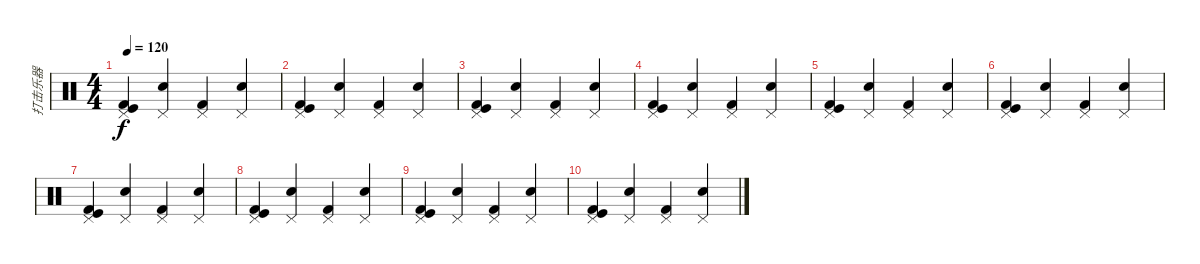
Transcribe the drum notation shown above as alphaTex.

\track ("打击乐器" "打击乐器") {instrument percussion}
\staff {score}
\articulation defaults
\ts (4 4)
\tempo 120
\clef neutral
\ks c
("Kick (hit) 2" "Kick (hit)" "Pedal Hi-Hat (hit)").4{dy f} ("Pedal Hi-Hat (hit)" "Electric Snare (hit)").4 ("Kick (hit) 2" "Pedal Hi-Hat (hit)").4 ("Pedal Hi-Hat (hit)" "Electric Snare (hit)").4 |
("Kick (hit) 2" "Kick (hit)" "Pedal Hi-Hat (hit)").4 ("Pedal Hi-Hat (hit)" "Electric Snare (hit)").4 ("Kick (hit) 2" "Pedal Hi-Hat (hit)").4 ("Pedal Hi-Hat (hit)" "Electric Snare (hit)").4 |
("Kick (hit) 2" "Kick (hit)" "Pedal Hi-Hat (hit)").4 ("Pedal Hi-Hat (hit)" "Electric Snare (hit)").4 ("Kick (hit) 2" "Pedal Hi-Hat (hit)").4 ("Pedal Hi-Hat (hit)" "Electric Snare (hit)").4 |
("Kick (hit) 2" "Kick (hit)" "Pedal Hi-Hat (hit)").4 ("Pedal Hi-Hat (hit)" "Electric Snare (hit)").4 ("Kick (hit) 2" "Pedal Hi-Hat (hit)").4 ("Pedal Hi-Hat (hit)" "Electric Snare (hit)").4 |
("Kick (hit) 2" "Kick (hit)" "Pedal Hi-Hat (hit)").4 ("Pedal Hi-Hat (hit)" "Electric Snare (hit)").4 ("Kick (hit) 2" "Pedal Hi-Hat (hit)").4 ("Pedal Hi-Hat (hit)" "Electric Snare (hit)").4 |
("Kick (hit) 2" "Kick (hit)" "Pedal Hi-Hat (hit)").4 ("Pedal Hi-Hat (hit)" "Electric Snare (hit)").4 ("Kick (hit) 2" "Pedal Hi-Hat (hit)").4 ("Pedal Hi-Hat (hit)" "Electric Snare (hit)").4 |
("Kick (hit) 2" "Kick (hit)" "Pedal Hi-Hat (hit)").4 ("Pedal Hi-Hat (hit)" "Electric Snare (hit)").4 ("Kick (hit) 2" "Pedal Hi-Hat (hit)").4 ("Pedal Hi-Hat (hit)" "Electric Snare (hit)").4 |
("Kick (hit) 2" "Kick (hit)" "Pedal Hi-Hat (hit)").4 ("Pedal Hi-Hat (hit)" "Electric Snare (hit)").4 ("Kick (hit) 2" "Pedal Hi-Hat (hit)").4 ("Pedal Hi-Hat (hit)" "Electric Snare (hit)").4 |
("Kick (hit) 2" "Kick (hit)" "Pedal Hi-Hat (hit)").4 ("Pedal Hi-Hat (hit)" "Electric Snare (hit)").4 ("Kick (hit) 2" "Pedal Hi-Hat (hit)").4 ("Pedal Hi-Hat (hit)" "Electric Snare (hit)").4 |
("Kick (hit) 2" "Kick (hit)" "Pedal Hi-Hat (hit)").4 ("Pedal Hi-Hat (hit)" "Electric Snare (hit)").4 ("Kick (hit) 2" "Pedal Hi-Hat (hit)").4 ("Pedal Hi-Hat (hit)" "Electric Snare (hit)").4
